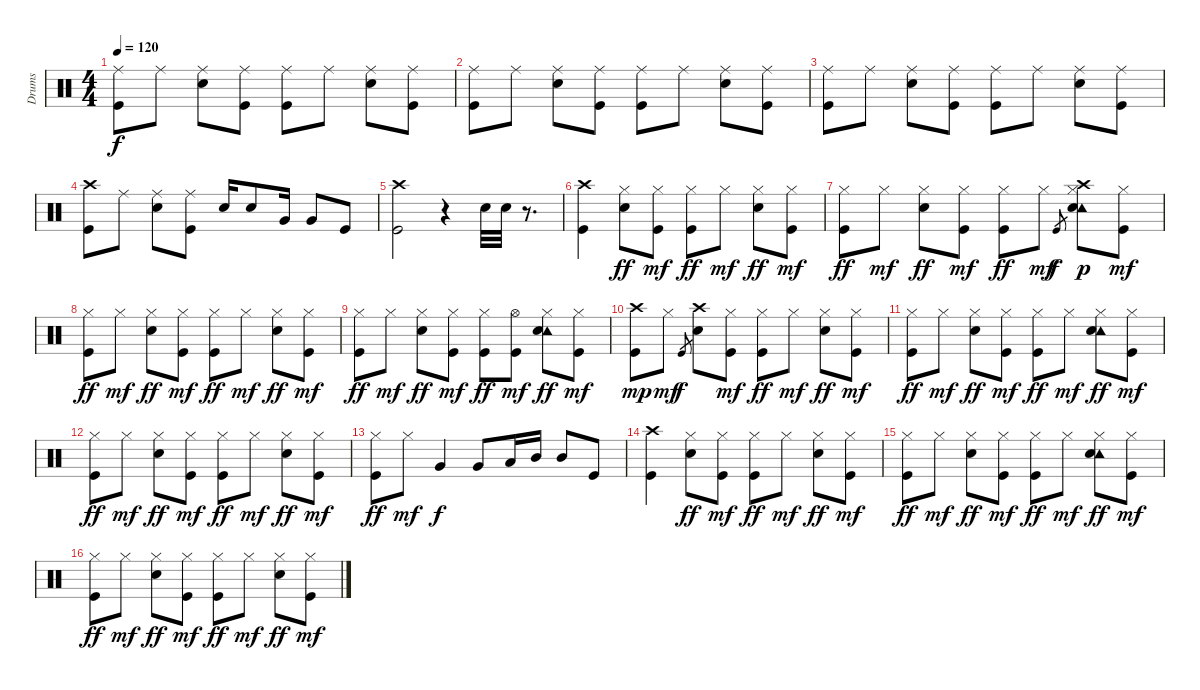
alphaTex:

\track ("Drums" "Drums") {instrument percussion}
\staff {score}
\articulation defaults
\ts (4 4)
\tempo 120
\clef neutral
\ks c
("Ride (middle)" "Kick (hit)").8{dy f} "Ride (middle)".8 ("Ride (middle)" "Snare (hit) 2").8 ("Ride (middle)" "Kick (hit)").8 ("Ride (middle)" "Kick (hit)").8 "Ride (middle)".8 ("Ride (middle)" "Snare (hit) 2").8 ("Ride (middle)" "Kick (hit)").8 |
("Ride (middle)" "Kick (hit)").8 "Ride (middle)".8 ("Ride (middle)" "Snare (hit) 2").8 ("Ride (middle)" "Kick (hit)").8 ("Ride (middle)" "Kick (hit)").8 "Ride (middle)".8 ("Ride (middle)" "Snare (hit) 2").8 ("Ride (middle)" "Kick (hit)").8 |
("Ride (middle)" "Kick (hit)").8 "Ride (middle)".8 ("Ride (middle)" "Snare (hit) 2").8 ("Ride (middle)" "Kick (hit)").8 ("Ride (middle)" "Kick (hit)").8 "Ride (middle)".8 ("Ride (middle)" "Snare (hit) 2").8 ("Ride (middle)" "Kick (hit)").8 |
("Crash high (hit)" "Kick (hit)").8 "Ride (middle)".8 ("Ride (middle)" "Snare (hit) 2").8 ("Ride (middle)" "Kick (hit)").8 "Snare (hit) 2".16 "Snare (hit) 2".8 "Very Low Tom (hit)".16 "Very Low Tom (hit)".8 "Kick (hit)".8 |
("Crash high (hit)" "Kick (hit)").2 r.4 "Snare (hit) 2".32 "Snare (hit) 2".32 r.8{d} |
("Crash high (hit)" "Kick (hit)").4 ("Hi-Hat (closed)" "Snare (hit) 2").8{dy ff} ("Hi-Hat (closed)" "Kick (hit)").8{dy mf} ("Hi-Hat (closed)" "Kick (hit)").8{dy ff} "Hi-Hat (closed)".8{dy mf} ("Hi-Hat (closed)" "Snare (hit) 2").8{dy ff} ("Hi-Hat (closed)" "Kick (hit)").8{dy mf} |
("Hi-Hat (closed)" "Kick (hit)").8{dy ff} "Hi-Hat (closed)".8{dy mf} ("Hi-Hat (closed)" "Snare (hit) 2").8{dy ff} ("Hi-Hat (closed)" "Kick (hit)").8{dy mf} ("Hi-Hat (closed)" "Kick (hit)").8{dy ff} "Hi-Hat (closed)".8{dy mf} "Kick (hit)".8{gr dy f} ("Crash high (hit)" "Tambourine (hit)" "Snare (hit) 2" "Hi-Hat (closed)").8{dy p} ("Hi-Hat (closed)" "Kick (hit)").8{dy mf} |
("Hi-Hat (closed)" "Kick (hit)").8{dy ff} "Hi-Hat (closed)".8{dy mf} ("Hi-Hat (closed)" "Snare (hit) 2").8{dy ff} ("Hi-Hat (closed)" "Kick (hit)").8{dy mf} ("Hi-Hat (closed)" "Kick (hit)").8{dy ff} "Hi-Hat (closed)".8{dy mf} ("Hi-Hat (closed)" "Snare (hit) 2").8{dy ff} ("Hi-Hat (closed)" "Kick (hit)").8{dy mf} |
("Hi-Hat (closed)" "Kick (hit)").8{dy ff} "Hi-Hat (closed)".8{dy mf} ("Hi-Hat (closed)" "Snare (hit) 2").8{dy ff} ("Hi-Hat (closed)" "Kick (hit)").8{dy mf} ("Hi-Hat (closed)" "Kick (hit)").8{dy ff} ("Hi-Hat (open)" "Kick (hit)").8{dy mf} ("Hi-Hat (closed)" "Tambourine (hit)" "Snare (hit) 2").8{dy ff} ("Hi-Hat (closed)" "Kick (hit)").8{dy mf} |
("Crash high (hit)" "Kick (hit)").8{dy mp} "Hi-Hat (closed)".8{dy mf} "Kick (hit)".8{gr dy f} ("Crash high (hit)" "Snare (hit) 2").8 ("Hi-Hat (closed)" "Kick (hit)").8{dy mf} ("Hi-Hat (closed)" "Kick (hit)").8{dy ff} "Hi-Hat (closed)".8{dy mf} ("Hi-Hat (closed)" "Snare (hit) 2").8{dy ff} ("Hi-Hat (closed)" "Kick (hit)").8{dy mf} |
("Hi-Hat (closed)" "Kick (hit)").8{dy ff} "Hi-Hat (closed)".8{dy mf} ("Hi-Hat (closed)" "Snare (hit) 2").8{dy ff} ("Hi-Hat (closed)" "Kick (hit)").8{dy mf} ("Hi-Hat (closed)" "Kick (hit)").8{dy ff} "Hi-Hat (closed)".8{dy mf} ("Hi-Hat (closed)" "Tambourine (hit)" "Snare (hit) 2").8{dy ff} ("Hi-Hat (closed)" "Kick (hit)").8{dy mf} |
("Hi-Hat (closed)" "Kick (hit)").8{dy ff} "Hi-Hat (closed)".8{dy mf} ("Hi-Hat (closed)" "Snare (hit) 2").8{dy ff} ("Hi-Hat (closed)" "Kick (hit)").8{dy mf} ("Hi-Hat (closed)" "Kick (hit)").8{dy ff} "Hi-Hat (closed)".8{dy mf} ("Hi-Hat (closed)" "Snare (hit) 2").8{dy ff} ("Hi-Hat (closed)" "Kick (hit)").8{dy mf} |
("Hi-Hat (closed)" "Kick (hit)").8{dy ff} "Hi-Hat (closed)".8{dy mf} "Very Low Tom (hit)".4{dy f} "Very Low Tom (hit)".8 "Low Tom (hit)".16 "Mid Tom (hit)".16 "Mid Tom (hit)".8 "Kick (hit)".8 |
("Crash high (hit)" "Kick (hit)").4 ("Hi-Hat (closed)" "Snare (hit) 2").8{dy ff} ("Hi-Hat (closed)" "Kick (hit)").8{dy mf} ("Hi-Hat (closed)" "Kick (hit)").8{dy ff} "Hi-Hat (closed)".8{dy mf} ("Hi-Hat (closed)" "Snare (hit) 2").8{dy ff} ("Hi-Hat (closed)" "Kick (hit)").8{dy mf} |
("Hi-Hat (closed)" "Kick (hit)").8{dy ff} "Hi-Hat (closed)".8{dy mf} ("Hi-Hat (closed)" "Snare (hit) 2").8{dy ff} ("Hi-Hat (closed)" "Kick (hit)").8{dy mf} ("Hi-Hat (closed)" "Kick (hit)").8{dy ff} "Hi-Hat (closed)".8{dy mf} ("Hi-Hat (closed)" "Tambourine (hit)" "Snare (hit) 2").8{dy ff} ("Hi-Hat (closed)" "Kick (hit)").8{dy mf} |
("Hi-Hat (closed)" "Kick (hit)").8{dy ff} "Hi-Hat (closed)".8{dy mf} ("Hi-Hat (closed)" "Snare (hit) 2").8{dy ff} ("Hi-Hat (closed)" "Kick (hit)").8{dy mf} ("Hi-Hat (closed)" "Kick (hit)").8{dy ff} "Hi-Hat (closed)".8{dy mf} ("Hi-Hat (closed)" "Snare (hit) 2").8{dy ff} ("Hi-Hat (closed)" "Kick (hit)").8{dy mf}
